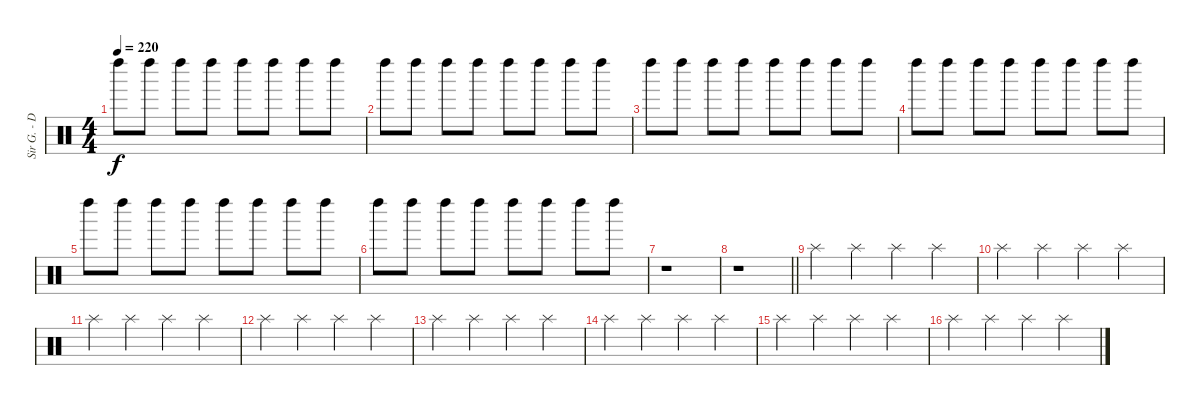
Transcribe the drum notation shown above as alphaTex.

\track ("Sir G. - Drums" "Sir G. - D") {instrument percussion}
\staff {score}
\articulation defaults
\ts (4 4)
\tempo 220
\clef neutral
\ks c "Left Maraca (hit)".8{dy f} "Left Maraca (hit)".8 "Left Maraca (hit)".8 "Left Maraca (hit)".8 "Left Maraca (hit)".8 "Left Maraca (hit)".8 "Left Maraca (hit)".8 "Left Maraca (hit)".8
|
"Left Maraca (hit)".8 "Left Maraca (hit)".8 "Left Maraca (hit)".8 "Left Maraca (hit)".8 "Left Maraca (hit)".8 "Left Maraca (hit)".8 "Left Maraca (hit)".8 "Left Maraca (hit)".8 |
"Left Maraca (hit)".8 "Left Maraca (hit)".8 "Left Maraca (hit)".8 "Left Maraca (hit)".8 "Left Maraca (hit)".8 "Left Maraca (hit)".8 "Left Maraca (hit)".8 "Left Maraca (hit)".8 |
"Left Maraca (hit)".8 "Left Maraca (hit)".8 "Left Maraca (hit)".8 "Left Maraca (hit)".8 "Left Maraca (hit)".8 "Left Maraca (hit)".8 "Left Maraca (hit)".8 "Left Maraca (hit)".8 |
"Left Maraca (hit)".8 "Left Maraca (hit)".8 "Left Maraca (hit)".8 "Left Maraca (hit)".8 "Left Maraca (hit)".8 "Left Maraca (hit)".8 "Left Maraca (hit)".8 "Left Maraca (hit)".8 |
"Left Maraca (hit)".8 "Left Maraca (hit)".8 "Left Maraca (hit)".8 "Left Maraca (hit)".8 "Left Maraca (hit)".8 "Left Maraca (hit)".8 "Left Maraca (hit)".8 "Left Maraca (hit)".8 |
r.1 |
\barLineRight lightlight
r.1 |
"Splash (hit)".4 "Splash (hit)".4 "Splash (hit)".4 "Splash (hit)".4 |
"Splash (hit)".4 "Splash (hit)".4 "Splash (hit)".4 "Splash (hit)".4 |
"Splash (hit)".4 "Splash (hit)".4 "Splash (hit)".4 "Splash (hit)".4 |
"Splash (hit)".4 "Splash (hit)".4 "Splash (hit)".4 "Splash (hit)".4 |
"Splash (hit)".4 "Splash (hit)".4 "Splash (hit)".4 "Splash (hit)".4 |
"Splash (hit)".4 "Splash (hit)".4 "Splash (hit)".4 "Splash (hit)".4 |
"Splash (hit)".4 "Splash (hit)".4 "Splash (hit)".4 "Splash (hit)".4 |
"Splash (hit)".4 "Splash (hit)".4 "Splash (hit)".4 "Splash (hit)".4
